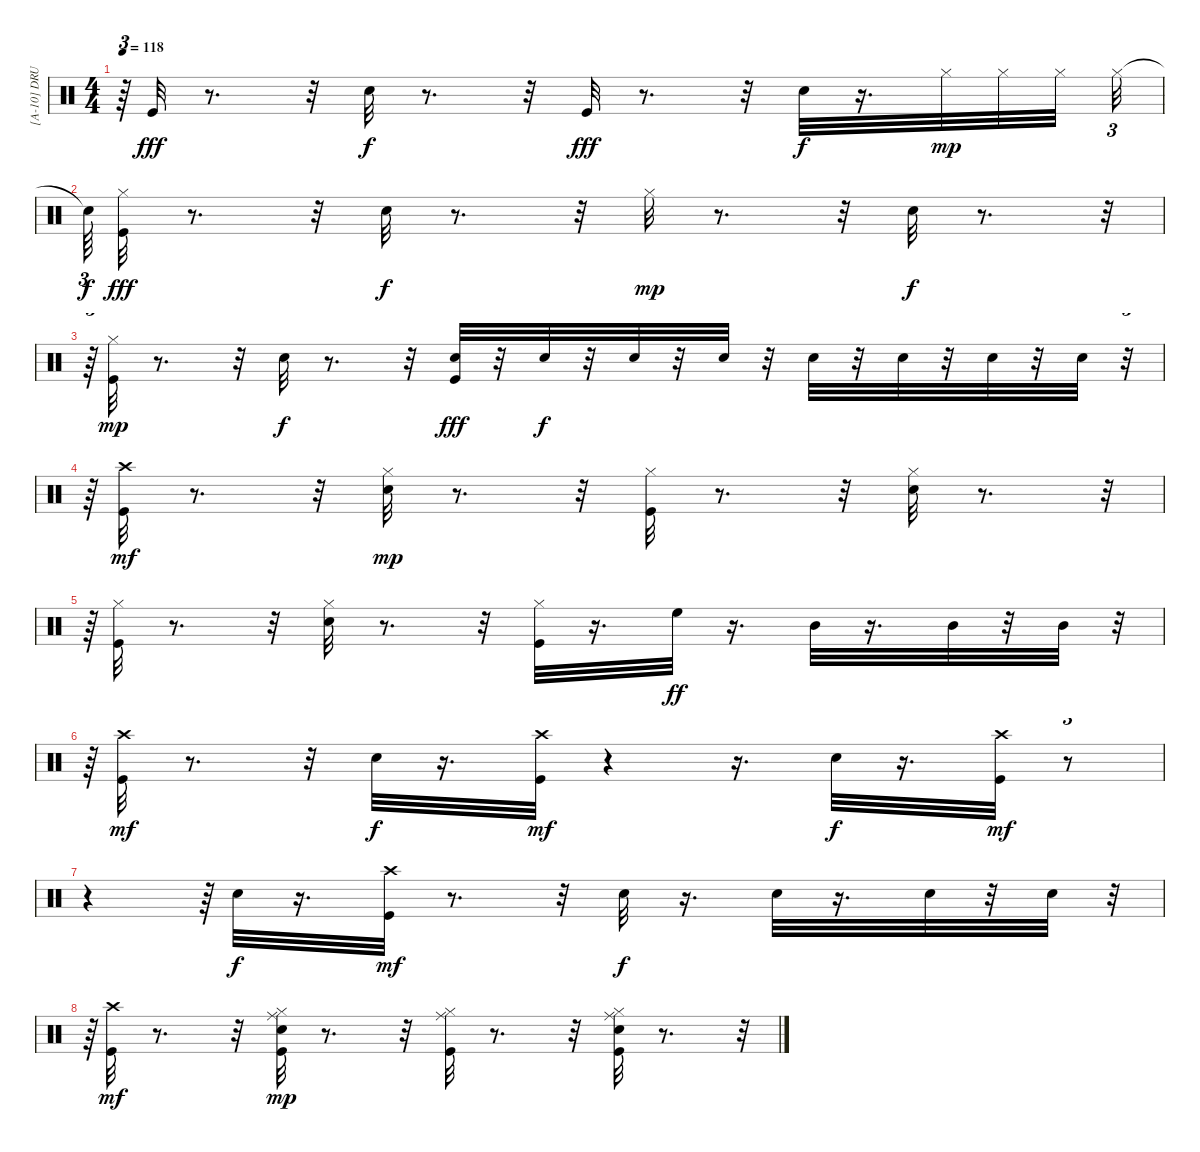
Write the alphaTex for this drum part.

\track ("[A-10] DRUM" "[A-10] DRU") {instrument percussion}
\staff {score}
\articulation defaults
\ts (4 4)
\tempo 118
\clef neutral
\ks c
r.64{tu (3 2) dy f} "Kick (hit)".32{dy fff} r.8{d} r.32 "Snare (hit) 2".32{dy f} r.8{d} r.32 "Kick (hit)".32{dy fff} r.8{d} r.32 "Snare (hit) 2".32{dy f} r.16{d} "Hi-Hat (closed)".32{dy mp} "Hi-Hat (closed)".32 "Hi-Hat (closed)".32 "Hi-Hat (closed)".32{tu (3 2)} |
"Snare (hit)"{t}.64{tu (3 2) dy f} ("Hi-Hat (closed)" "Kick (hit)").32{dy fff} r.8{d} r.32 "Snare (hit) 2".32{dy f} r.8{d} r.32 "Hi-Hat (closed)".32{dy mp} r.8{d} r.32 "Snare (hit) 2".32{dy f} r.8{d} r.32{tu (3 2)} |
r.64{tu (3 2)} ("Kick (hit)" "Hi-Hat (closed)").32{dy mp} r.8{d} r.32 "Snare (hit) 2".32{dy f} r.8{d} r.32 ("Snare (hit) 2" "Kick (hit)").32{dy fff} r.32 "Snare (hit) 2".32{dy f} r.32 "Snare (hit) 2".32 r.32 "Snare (hit) 2".32 r.32 "Snare (hit) 2".32 r.32 "Snare (hit) 2".32 r.32 "Snare (hit) 2".32 r.32 "Snare (hit) 2".32 r.32{tu (3 2)} |
r.64{tu (3 2)} ("Kick (hit)" "Crash high (hit)").32{dy mf} r.8{d} r.32 ("Snare (hit) 2" "Hi-Hat (closed)").32{dy mp} r.8{d} r.32 ("Kick (hit)" "Hi-Hat (closed)").32 r.8{d} r.32 ("Snare (hit) 2" "Hi-Hat (closed)").32 r.8{d} r.32{tu (3 2)} |
r.64{tu (3 2)} ("Kick (hit)" "Hi-Hat (closed)").32 r.8{d} r.32 ("Snare (hit) 2" "Hi-Hat (closed)").32 r.8{d} r.32 ("Kick (hit)" "Hi-Hat (closed)").32 r.16{d} "High Floor Tom (hit)".32{dy ff} r.16{d} "Mid Tom (hit)".32 r.16{d} "Mid Tom (hit)".32 r.32 "Mid Tom (hit)".32 r.32{tu (3 2)} |
r.64{tu (3 2)} ("Kick (hit)" "Crash high (hit)").32{dy mf} r.8{d} r.32 "Snare (hit) 2".32{dy f} r.16{d} ("Kick (hit)" "Crash high (hit)").32{dy mf} r.4 r.16{d} "Snare (hit) 2".32{dy f} r.16{d} ("Kick (hit)" "Crash high (hit)").32{dy mf} r.8{tu (3 2)} |
r.4 r.64{tu (3 2)} "Snare (hit) 2".32{dy f} r.16{d} ("Kick (hit)" "Crash high (hit)").32{dy mf} r.8{d} r.32 "Snare (hit) 2".32{dy f} r.16{d} "Snare (hit) 2".32 r.16{d} "Snare (hit) 2".32 r.32 "Snare (hit) 2".32 r.32{tu (3 2)} |
r.64{tu (3 2)} ("Kick (hit)" "Crash high (hit)").32{dy mf} r.8{d} r.32 ("Kick (hit)" "Ride (middle)" "Snare (hit) 2" "Hi-Hat (closed)").32{dy mp} r.8{d} r.32 ("Kick (hit)" "Ride (middle)" "Hi-Hat (closed)").32 r.8{d} r.32 ("Kick (hit)" "Ride (middle)" "Snare (hit) 2" "Hi-Hat (closed)").32 r.8{d} r.32{tu (3 2)}
